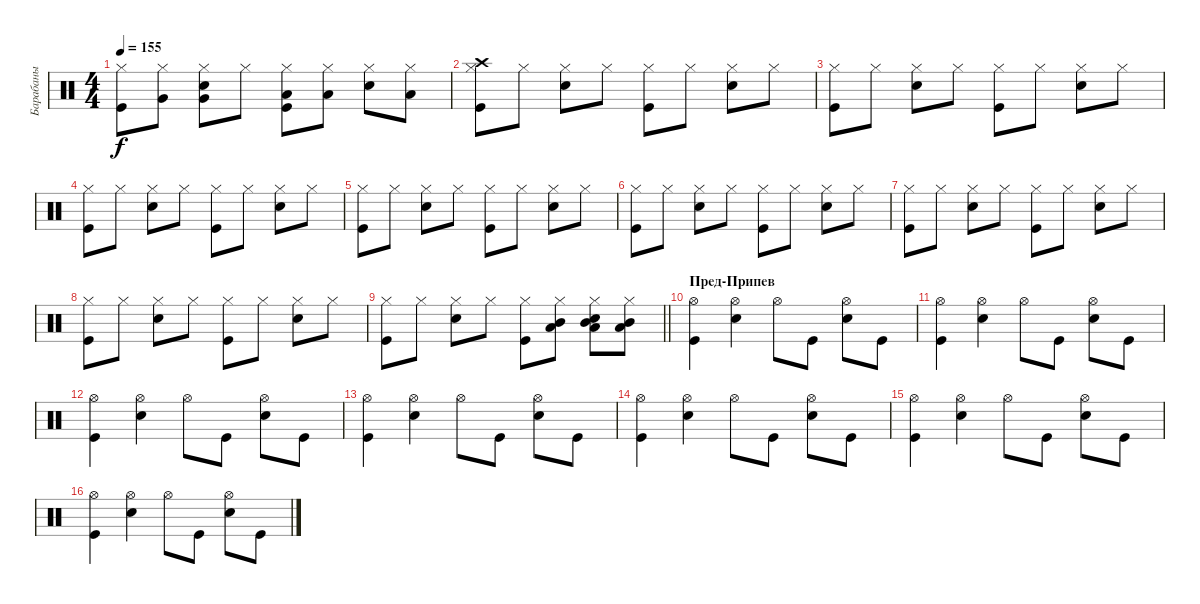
\track ("Барабаны" "Барабаны") {instrument percussion}
\staff {score}
\articulation defaults
\ts (4 4)
\tempo 155
\clef neutral
\ks c
("Kick (hit)" "Hi-Hat (closed)").8{dy f} ("Hi-Hat (closed)" "Very Low Tom (hit)").8 ("Snare (hit) 2" "Hi-Hat (closed)" "Very Low Tom (hit)").8 "Hi-Hat (closed)".8 ("Kick (hit)" "Hi-Hat (closed)" "Low Tom (hit)").8 ("Hi-Hat (closed)" "Low Tom (hit)").8 ("Snare (hit) 2" "Hi-Hat (closed)").8 ("Hi-Hat (closed)" "Low Tom (hit)").8 |
("Kick (hit)" "Hi-Hat (closed)" "Crash high (hit)").8 "Hi-Hat (closed)".8 ("Snare (hit) 2" "Hi-Hat (closed)").8 "Hi-Hat (closed)".8 ("Kick (hit)" "Hi-Hat (closed)").8 "Hi-Hat (closed)".8 ("Snare (hit) 2" "Hi-Hat (closed)").8 "Hi-Hat (closed)".8 |
("Kick (hit)" "Hi-Hat (closed)").8 "Hi-Hat (closed)".8 ("Snare (hit) 2" "Hi-Hat (closed)").8 "Hi-Hat (closed)".8 ("Kick (hit)" "Hi-Hat (closed)").8 "Hi-Hat (closed)".8 ("Snare (hit) 2" "Hi-Hat (closed)").8 "Hi-Hat (closed)".8 |
("Kick (hit)" "Hi-Hat (closed)").8 "Hi-Hat (closed)".8 ("Snare (hit) 2" "Hi-Hat (closed)").8 "Hi-Hat (closed)".8 ("Kick (hit)" "Hi-Hat (closed)").8 "Hi-Hat (closed)".8 ("Snare (hit) 2" "Hi-Hat (closed)").8 "Hi-Hat (closed)".8 |
("Kick (hit)" "Hi-Hat (closed)").8 "Hi-Hat (closed)".8 ("Snare (hit) 2" "Hi-Hat (closed)").8 "Hi-Hat (closed)".8 ("Kick (hit)" "Hi-Hat (closed)").8 "Hi-Hat (closed)".8 ("Snare (hit) 2" "Hi-Hat (closed)").8 "Hi-Hat (closed)".8 |
("Kick (hit)" "Hi-Hat (closed)").8 "Hi-Hat (closed)".8 ("Snare (hit) 2" "Hi-Hat (closed)").8 "Hi-Hat (closed)".8 ("Kick (hit)" "Hi-Hat (closed)").8 "Hi-Hat (closed)".8 ("Snare (hit) 2" "Hi-Hat (closed)").8 "Hi-Hat (closed)".8 |
("Kick (hit)" "Hi-Hat (closed)").8 "Hi-Hat (closed)".8 ("Snare (hit) 2" "Hi-Hat (closed)").8 "Hi-Hat (closed)".8 ("Kick (hit)" "Hi-Hat (closed)").8 "Hi-Hat (closed)".8 ("Snare (hit) 2" "Hi-Hat (closed)").8 "Hi-Hat (closed)".8 |
("Kick (hit)" "Hi-Hat (closed)").8 "Hi-Hat (closed)".8 ("Snare (hit) 2" "Hi-Hat (closed)").8 "Hi-Hat (closed)".8 ("Kick (hit)" "Hi-Hat (closed)").8 "Hi-Hat (closed)".8 ("Snare (hit) 2" "Hi-Hat (closed)").8 "Hi-Hat (closed)".8 |
\barLineRight lightlight
("Kick (hit)" "Hi-Hat (closed)").8 "Hi-Hat (closed)".8 ("Snare (hit) 2" "Hi-Hat (closed)").8 "Hi-Hat (closed)".8 ("Kick (hit)" "Hi-Hat (closed)").8 ("Hi-Hat (closed)" "Low Tom (hit)" "Mid Tom (hit)").8 ("Snare (hit) 2" "Hi-Hat (closed)" "Low Tom (hit)" "Mid Tom (hit)").8 ("Hi-Hat (closed)" "Low Tom (hit)" "Mid Tom (hit)").8 |
\section ("" "Пред-Припев")
("Kick (hit)" "Hi-Hat (open)").4 ("Snare (hit) 2" "Hi-Hat (open)").4 "Hi-Hat (open)".8 "Kick (hit)".8 ("Snare (hit) 2" "Hi-Hat (open)").8 "Kick (hit)".8 |
("Kick (hit)" "Hi-Hat (open)").4 ("Snare (hit) 2" "Hi-Hat (open)").4 "Hi-Hat (open)".8 "Kick (hit)".8 ("Snare (hit) 2" "Hi-Hat (open)").8 "Kick (hit)".8 |
("Kick (hit)" "Hi-Hat (open)").4 ("Snare (hit) 2" "Hi-Hat (open)").4 "Hi-Hat (open)".8 "Kick (hit)".8 ("Snare (hit) 2" "Hi-Hat (open)").8 "Kick (hit)".8 |
("Kick (hit)" "Hi-Hat (open)").4 ("Snare (hit) 2" "Hi-Hat (open)").4 "Hi-Hat (open)".8 "Kick (hit)".8 ("Snare (hit) 2" "Hi-Hat (open)").8 "Kick (hit)".8 |
("Kick (hit)" "Hi-Hat (open)").4 ("Snare (hit) 2" "Hi-Hat (open)").4 "Hi-Hat (open)".8 "Kick (hit)".8 ("Snare (hit) 2" "Hi-Hat (open)").8 "Kick (hit)".8 |
("Kick (hit)" "Hi-Hat (open)").4 ("Snare (hit) 2" "Hi-Hat (open)").4 "Hi-Hat (open)".8 "Kick (hit)".8 ("Snare (hit) 2" "Hi-Hat (open)").8 "Kick (hit)".8 |
("Kick (hit)" "Hi-Hat (open)").4 ("Snare (hit) 2" "Hi-Hat (open)").4 "Hi-Hat (open)".8 "Kick (hit)".8 ("Snare (hit) 2" "Hi-Hat (open)").8 "Kick (hit)".8
